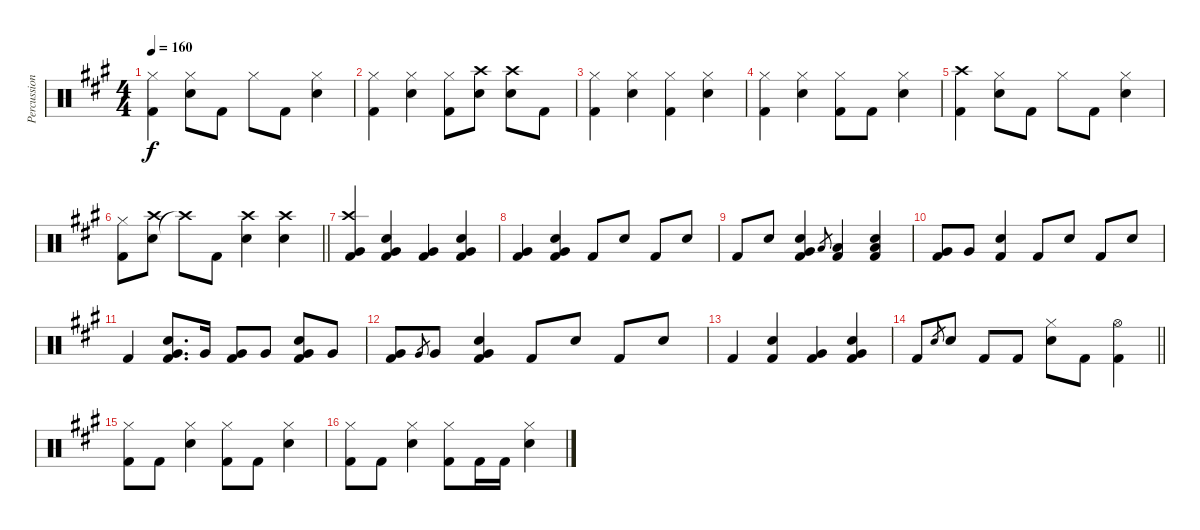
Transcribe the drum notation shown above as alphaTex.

\track ("Percussions" "Percussion") {instrument percussion}
\staff {score}
\articulation defaults
\ts (4 4)
\tempo 160
\clef neutral
\ks a
("Hi-Hat (closed)" "Kick (hit) 2").4{dy f} ("Hi-Hat (closed)" "Snare (hit) 2").8 "Kick (hit) 2".8 "Hi-Hat (closed)".8 "Kick (hit) 2".8 ("Hi-Hat (closed)" "Snare (hit) 2").4 |
("Hi-Hat (closed)" "Kick (hit) 2").4 ("Hi-Hat (closed)" "Snare (hit) 2").4 ("Hi-Hat (closed)" "Kick (hit) 2").8 ("Snare (hit) 2" "Crash high (hit)").8 ("Snare (hit) 2" "Crash high (hit)").8 "Kick (hit) 2".8 |
("Hi-Hat (closed)" "Kick (hit) 2").4 ("Hi-Hat (closed)" "Snare (hit) 2").4 ("Hi-Hat (closed)" "Kick (hit) 2").4 ("Hi-Hat (closed)" "Snare (hit) 2").4 |
("Hi-Hat (closed)" "Kick (hit) 2").4 ("Hi-Hat (closed)" "Snare (hit) 2").4 ("Hi-Hat (closed)" "Kick (hit) 2").8 "Kick (hit) 2".8 ("Hi-Hat (closed)" "Snare (hit) 2").4 |
("Kick (hit) 2" "Crash high (hit)").4 ("Hi-Hat (closed)" "Snare (hit) 2").8 "Kick (hit) 2".8 "Hi-Hat (closed)".8 "Kick (hit) 2".8 ("Hi-Hat (closed)" "Snare (hit) 2").4 |
\barLineRight lightlight
("Hi-Hat (closed)" "Kick (hit) 2").8 ("Snare (hit) 2" "Crash high (hit)").8 "Crash high (hit)"{t}.8 "Kick (hit) 2".8 ("Snare (hit) 2" "Crash high (hit)").4 ("Snare (hit) 2" "Crash high (hit)").4 |
("Kick (hit) 2" "Very Low Tom (hit)" "Crash high (hit)").4 ("Snare (hit) 2" "Kick (hit) 2" "Very Low Tom (hit)").4 ("Kick (hit) 2" "Very Low Tom (hit)").4 ("Snare (hit) 2" "Kick (hit) 2" "Very Low Tom (hit)").4 |
("Kick (hit) 2" "Very Low Tom (hit)").4 ("Snare (hit) 2" "Kick (hit) 2" "Very Low Tom (hit)").4 "Kick (hit) 2".8 "Snare (hit) 2".8 "Kick (hit) 2".8 "Snare (hit) 2".8 |
"Kick (hit) 2".8 "Snare (hit) 2".8 ("Snare (hit) 2" "Kick (hit) 2" "Very Low Tom (hit)").4 "Low Tom (hit)".8{gr} ("Kick (hit) 2" "Low Tom (hit)").4 ("Snare (hit) 2" "Kick (hit) 2" "Low Tom (hit)").4 |
("Kick (hit) 2" "Very Low Tom (hit)").8 "Very Low Tom (hit)".8 ("Snare (hit) 2" "Kick (hit) 2").4 "Kick (hit) 2".8 "Snare (hit) 2".8 "Kick (hit) 2".8 "Snare (hit) 2".8 |
"Kick (hit) 2".4 ("Snare (hit) 2" "Kick (hit) 2" "Very Low Tom (hit)").8{d} "Very Low Tom (hit)".16 ("Kick (hit) 2" "Very Low Tom (hit)").8 "Very Low Tom (hit)".8 ("Snare (hit) 2" "Kick (hit) 2" "Very Low Tom (hit)").8 "Very Low Tom (hit)".8 |
("Kick (hit) 2" "Very Low Tom (hit)").8 "Very Low Tom (hit)".8{gr} "Very Low Tom (hit)".8 ("Snare (hit) 2" "Kick (hit) 2" "Very Low Tom (hit)").4 "Kick (hit) 2".8 "Snare (hit) 2".8 "Kick (hit) 2".8 "Snare (hit) 2".8 |
"Kick (hit) 2".4 ("Snare (hit) 2" "Kick (hit) 2").4 ("Kick (hit) 2" "Very Low Tom (hit)").4 ("Snare (hit) 2" "Kick (hit) 2" "Very Low Tom (hit)").4 |
\barLineRight lightlight "Kick (hit) 2".8 "Snare (hit) 2".8{gr} "Snare (hit) 2".8 "Kick (hit) 2".8 "Kick (hit) 2".8
("Hi-Hat (closed)" "Snare (hit) 2").8 "Kick (hit) 2".8 ("Hi-Hat (open)" "Kick (hit) 2").4 |
("Hi-Hat (closed)" "Kick (hit) 2").8 "Kick (hit) 2".8 ("Hi-Hat (closed)" "Snare (hit) 2").4 ("Hi-Hat (closed)" "Kick (hit) 2").8 "Kick (hit) 2".8 ("Hi-Hat (closed)" "Snare (hit) 2").4 |
("Hi-Hat (closed)" "Kick (hit) 2").8 "Kick (hit) 2".8 ("Hi-Hat (closed)" "Snare (hit) 2").4 ("Hi-Hat (closed)" "Kick (hit) 2").8 "Kick (hit) 2".16 "Kick (hit) 2".16 ("Hi-Hat (closed)" "Snare (hit) 2").4
